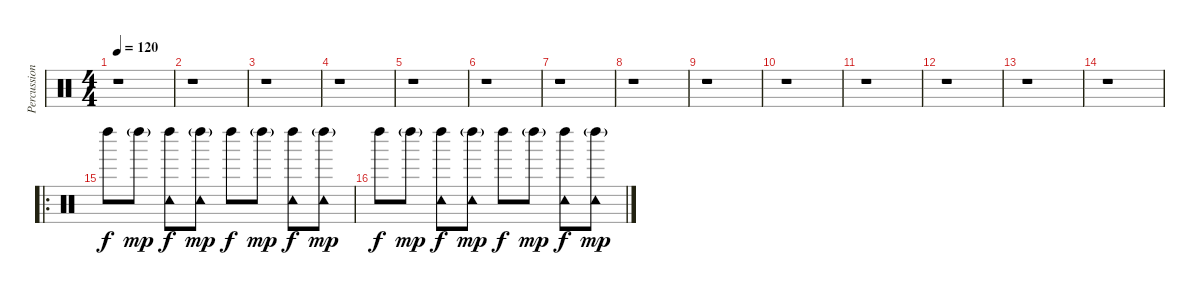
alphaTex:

\track ("Percussions" "Percussion") {instrument percussion}
\staff {score}
\articulation defaults
\ts (4 4)
\tempo 120
\clef neutral
\ks c
r.1{dy f} |
r.1 |
r.1 |
r.1 |
r.1 |
r.1 |
r.1 |
r.1 |
r.1 |
r.1 |
r.1 |
r.1 |
r.1 |
r.1 |
\ro "Left Maraca (hit)".8 "Left Maraca (hit)"{g}.8{dy mp}
("Left Maraca (hit)" "Tambourine (hit)").8{dy f} ("Left Maraca (hit)"{g} "Tambourine (hit)").8{dy mp} "Left Maraca (hit)".8{dy f} "Left Maraca (hit)"{g}.8{dy mp} ("Left Maraca (hit)" "Tambourine (hit)").8{dy f} ("Left Maraca (hit)"{g} "Tambourine (hit)").8{dy mp} |
"Left Maraca (hit)".8{dy f} "Left Maraca (hit)"{g}.8{dy mp} ("Left Maraca (hit)" "Tambourine (hit)").8{dy f} ("Left Maraca (hit)"{g} "Tambourine (hit)").8{dy mp} "Left Maraca (hit)".8{dy f} "Left Maraca (hit)"{g}.8{dy mp} ("Left Maraca (hit)" "Tambourine (hit)").8{dy f} ("Left Maraca (hit)"{g} "Tambourine (hit)").8{dy mp}
